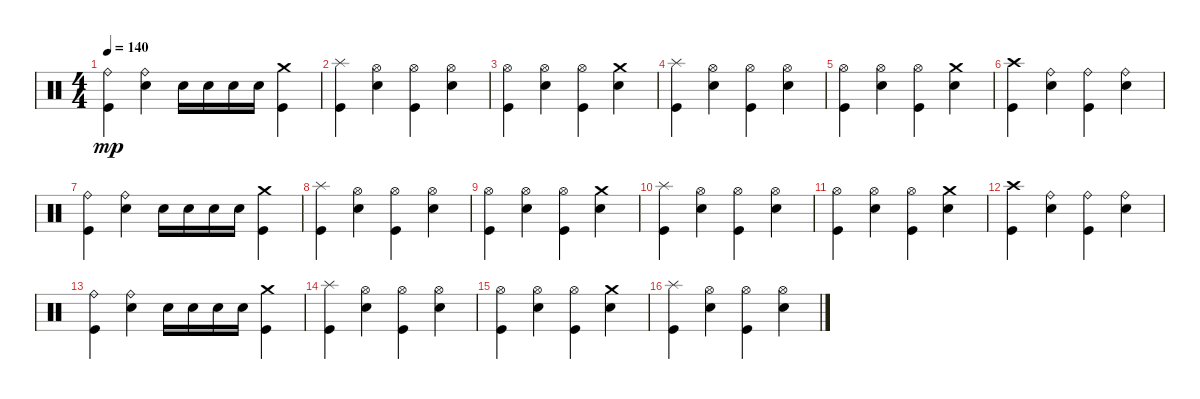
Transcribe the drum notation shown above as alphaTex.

\track "" {instrument percussion}
\staff {score}
\articulation defaults
\ts (4 4)
\tempo 140
\clef neutral
\ks c
("Kick (hit)" "Ride (bell)").4{dy mp} ("Snare (hit) 2" "Ride (bell)").4 "Snare (hit) 2".16 "Snare (hit) 2".16 "Snare (hit) 2".16 "Snare (hit) 2".16 ("Kick (hit)" "Crash medium (hit)").4 |
("Kick (hit)" "Splash (hit)").4 ("Snare (hit) 2" "Hi-Hat (open)").4 ("Kick (hit)" "Hi-Hat (open)").4 ("Snare (hit) 2" "Hi-Hat (open)").4 |
("Kick (hit)" "Hi-Hat (open)").4 ("Snare (hit) 2" "Hi-Hat (open)").4 ("Kick (hit)" "Hi-Hat (open)").4 ("Snare (hit) 2" "Crash medium (hit)").4 |
("Kick (hit)" "Splash (hit)").4 ("Snare (hit) 2" "Hi-Hat (open)").4 ("Kick (hit)" "Hi-Hat (open)").4 ("Snare (hit) 2" "Hi-Hat (open)").4 |
("Kick (hit)" "Hi-Hat (open)").4 ("Snare (hit) 2" "Hi-Hat (open)").4 ("Kick (hit)" "Hi-Hat (open)").4 ("Snare (hit) 2" "Crash medium (hit)").4 |
("Crash high (hit)" "Kick (hit)").4 ("Snare (hit) 2" "Ride (bell)").4 ("Kick (hit)" "Ride (bell)").4 ("Snare (hit) 2" "Ride (bell)").4 |
("Kick (hit)" "Ride (bell)").4 ("Snare (hit) 2" "Ride (bell)").4 "Snare (hit) 2".16 "Snare (hit) 2".16 "Snare (hit) 2".16 "Snare (hit) 2".16 ("Kick (hit)" "Crash medium (hit)").4 |
("Kick (hit)" "Splash (hit)").4 ("Snare (hit) 2" "Hi-Hat (open)").4 ("Kick (hit)" "Hi-Hat (open)").4 ("Snare (hit) 2" "Hi-Hat (open)").4 |
("Kick (hit)" "Hi-Hat (open)").4 ("Snare (hit) 2" "Hi-Hat (open)").4 ("Kick (hit)" "Hi-Hat (open)").4 ("Snare (hit) 2" "Crash medium (hit)").4 |
("Kick (hit)" "Splash (hit)").4 ("Snare (hit) 2" "Hi-Hat (open)").4 ("Kick (hit)" "Hi-Hat (open)").4 ("Snare (hit) 2" "Hi-Hat (open)").4 |
("Kick (hit)" "Hi-Hat (open)").4 ("Snare (hit) 2" "Hi-Hat (open)").4 ("Kick (hit)" "Hi-Hat (open)").4 ("Snare (hit) 2" "Crash medium (hit)").4 |
("Crash high (hit)" "Kick (hit)").4 ("Snare (hit) 2" "Ride (bell)").4 ("Kick (hit)" "Ride (bell)").4 ("Snare (hit) 2" "Ride (bell)").4 |
("Kick (hit)" "Ride (bell)").4 ("Snare (hit) 2" "Ride (bell)").4 "Snare (hit) 2".16 "Snare (hit) 2".16 "Snare (hit) 2".16 "Snare (hit) 2".16 ("Kick (hit)" "Crash medium (hit)").4 |
("Kick (hit)" "Splash (hit)").4 ("Snare (hit) 2" "Hi-Hat (open)").4 ("Kick (hit)" "Hi-Hat (open)").4 ("Snare (hit) 2" "Hi-Hat (open)").4 |
("Kick (hit)" "Hi-Hat (open)").4 ("Snare (hit) 2" "Hi-Hat (open)").4 ("Kick (hit)" "Hi-Hat (open)").4 ("Snare (hit) 2" "Crash medium (hit)").4 |
("Kick (hit)" "Splash (hit)").4 ("Snare (hit) 2" "Hi-Hat (open)").4 ("Kick (hit)" "Hi-Hat (open)").4 ("Snare (hit) 2" "Hi-Hat (open)").4
